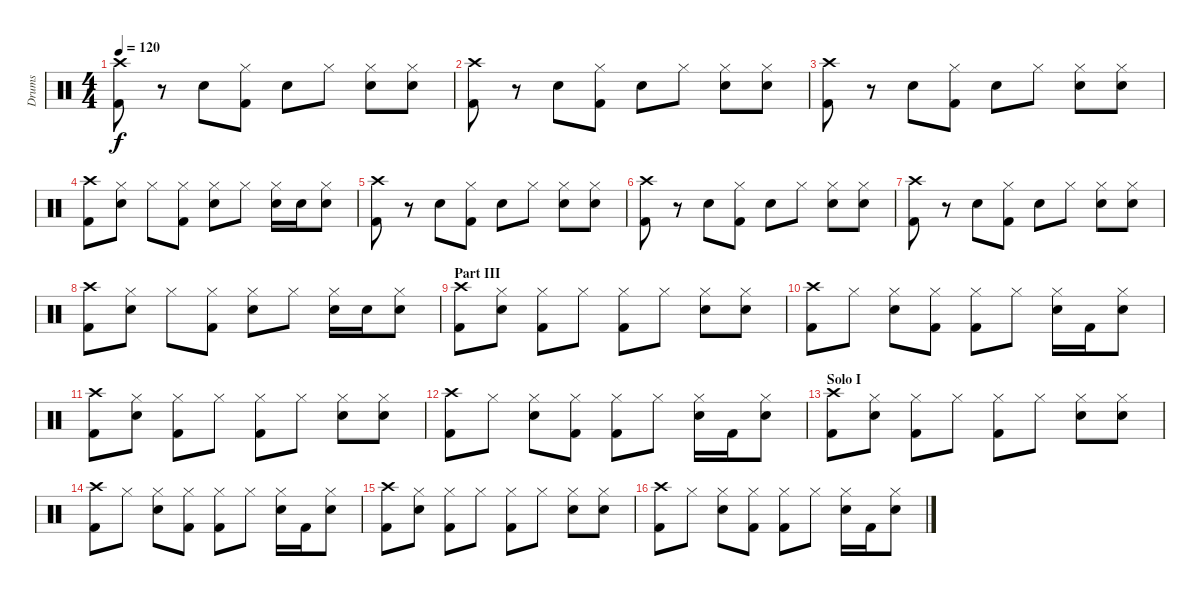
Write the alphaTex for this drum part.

\track ("Drums" "Drums") {instrument percussion}
\staff {score}
\articulation defaults
\ts (4 4)
\tempo 120
\clef neutral
\ks c
("Crash high (hit)" "Kick (hit) 2").8{dy f} r.8 "Electric Snare (hit)".8 ("Hi-Hat (closed)" "Kick (hit) 2").8 "Snare (hit) 2".8 "Hi-Hat (closed)".8 ("Hi-Hat (closed)" "Electric Snare (hit)").8 ("Hi-Hat (closed)" "Snare (hit) 2").8 |
("Crash high (hit)" "Kick (hit) 2").8 r.8 "Electric Snare (hit)".8 ("Hi-Hat (closed)" "Kick (hit) 2").8 "Snare (hit) 2".8 "Hi-Hat (closed)".8 ("Hi-Hat (closed)" "Electric Snare (hit)").8 ("Hi-Hat (closed)" "Snare (hit) 2").8 |
("Crash high (hit)" "Kick (hit) 2").8 r.8 "Electric Snare (hit)".8 ("Hi-Hat (closed)" "Kick (hit) 2").8 "Snare (hit) 2".8 "Hi-Hat (closed)".8 ("Hi-Hat (closed)" "Electric Snare (hit)").8 ("Hi-Hat (closed)" "Snare (hit) 2").8 |
("Crash high (hit)" "Kick (hit) 2").8 ("Hi-Hat (closed)" "Snare (hit) 2").8 "Hi-Hat (closed)".8 ("Hi-Hat (closed)" "Kick (hit) 2").8 ("Hi-Hat (closed)" "Snare (hit) 2").8 "Hi-Hat (closed)".8 ("Hi-Hat (closed)" "Snare (hit) 2").16 "Snare (hit) 2".16 ("Hi-Hat (closed)" "Snare (hit) 2").8 |
("Crash high (hit)" "Kick (hit) 2").8 r.8 "Electric Snare (hit)".8 ("Hi-Hat (closed)" "Kick (hit) 2").8 "Snare (hit) 2".8 "Hi-Hat (closed)".8 ("Hi-Hat (closed)" "Electric Snare (hit)").8 ("Hi-Hat (closed)" "Snare (hit) 2").8 |
("Crash high (hit)" "Kick (hit) 2").8 r.8 "Electric Snare (hit)".8 ("Hi-Hat (closed)" "Kick (hit) 2").8 "Snare (hit) 2".8 "Hi-Hat (closed)".8 ("Hi-Hat (closed)" "Electric Snare (hit)").8 ("Hi-Hat (closed)" "Snare (hit) 2").8 |
("Crash high (hit)" "Kick (hit) 2").8 r.8 "Electric Snare (hit)".8 ("Hi-Hat (closed)" "Kick (hit) 2").8 "Snare (hit) 2".8 "Hi-Hat (closed)".8 ("Hi-Hat (closed)" "Electric Snare (hit)").8 ("Hi-Hat (closed)" "Snare (hit) 2").8 |
("Crash high (hit)" "Kick (hit) 2").8 ("Hi-Hat (closed)" "Snare (hit) 2").8 "Hi-Hat (closed)".8 ("Hi-Hat (closed)" "Kick (hit) 2").8 ("Hi-Hat (closed)" "Snare (hit) 2").8 "Hi-Hat (closed)".8 ("Hi-Hat (closed)" "Snare (hit) 2").16 "Snare (hit) 2".16 ("Hi-Hat (closed)" "Snare (hit) 2").8 |
\section ("" "Part III")
("Crash high (hit)" "Kick (hit) 2").8 ("Hi-Hat (closed)" "Snare (hit) 2").8 ("Hi-Hat (closed)" "Kick (hit) 2").8 "Hi-Hat (closed)".8 ("Hi-Hat (closed)" "Kick (hit) 2").8 "Hi-Hat (closed)".8 ("Hi-Hat (closed)" "Snare (hit) 2").8 ("Hi-Hat (closed)" "Snare (hit) 2").8 |
("Crash high (hit)" "Kick (hit) 2").8 "Hi-Hat (closed)".8 ("Hi-Hat (closed)" "Snare (hit) 2").8 ("Hi-Hat (closed)" "Kick (hit) 2").8 ("Hi-Hat (closed)" "Kick (hit) 2").8 "Hi-Hat (closed)".8 ("Hi-Hat (closed)" "Snare (hit) 2").16 "Kick (hit) 2".16 ("Hi-Hat (closed)" "Snare (hit) 2").8 |
("Crash high (hit)" "Kick (hit) 2").8 ("Hi-Hat (closed)" "Snare (hit) 2").8 ("Hi-Hat (closed)" "Kick (hit) 2").8 "Hi-Hat (closed)".8 ("Hi-Hat (closed)" "Kick (hit) 2").8 "Hi-Hat (closed)".8 ("Hi-Hat (closed)" "Snare (hit) 2").8 ("Hi-Hat (closed)" "Snare (hit) 2").8 |
("Crash high (hit)" "Kick (hit) 2").8 "Hi-Hat (closed)".8 ("Hi-Hat (closed)" "Snare (hit) 2").8 ("Hi-Hat (closed)" "Kick (hit) 2").8 ("Hi-Hat (closed)" "Kick (hit) 2").8 "Hi-Hat (closed)".8 ("Hi-Hat (closed)" "Snare (hit) 2").16 "Kick (hit) 2".16 ("Hi-Hat (closed)" "Snare (hit) 2").8 |
\section ("" "Solo I")
("Crash high (hit)" "Kick (hit) 2").8 ("Hi-Hat (closed)" "Snare (hit) 2").8 ("Hi-Hat (closed)" "Kick (hit) 2").8 "Hi-Hat (closed)".8 ("Hi-Hat (closed)" "Kick (hit) 2").8 "Hi-Hat (closed)".8 ("Hi-Hat (closed)" "Snare (hit) 2").8 ("Hi-Hat (closed)" "Snare (hit) 2").8 |
("Crash high (hit)" "Kick (hit) 2").8 "Hi-Hat (closed)".8 ("Hi-Hat (closed)" "Snare (hit) 2").8 ("Hi-Hat (closed)" "Kick (hit) 2").8 ("Hi-Hat (closed)" "Kick (hit) 2").8 "Hi-Hat (closed)".8 ("Hi-Hat (closed)" "Snare (hit) 2").16 "Kick (hit) 2".16 ("Hi-Hat (closed)" "Snare (hit) 2").8 |
("Crash high (hit)" "Kick (hit) 2").8 ("Hi-Hat (closed)" "Snare (hit) 2").8 ("Hi-Hat (closed)" "Kick (hit) 2").8 "Hi-Hat (closed)".8 ("Hi-Hat (closed)" "Kick (hit) 2").8 "Hi-Hat (closed)".8 ("Hi-Hat (closed)" "Snare (hit) 2").8 ("Hi-Hat (closed)" "Snare (hit) 2").8 |
("Crash high (hit)" "Kick (hit) 2").8 "Hi-Hat (closed)".8 ("Hi-Hat (closed)" "Snare (hit) 2").8 ("Hi-Hat (closed)" "Kick (hit) 2").8 ("Hi-Hat (closed)" "Kick (hit) 2").8 "Hi-Hat (closed)".8 ("Hi-Hat (closed)" "Snare (hit) 2").16 "Kick (hit) 2".16 ("Hi-Hat (closed)" "Snare (hit) 2").8
